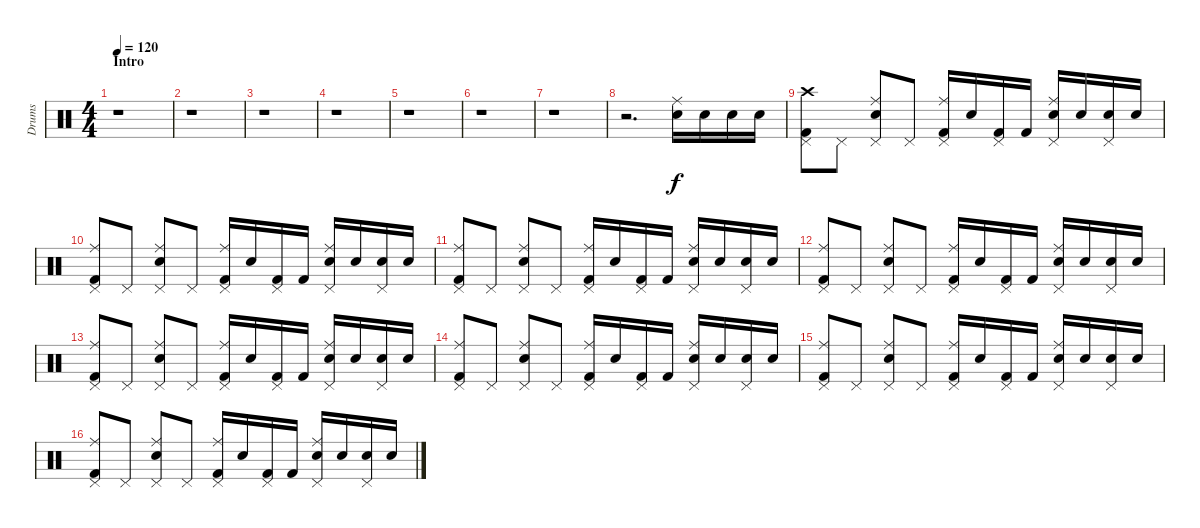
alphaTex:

\track ("Drums" "Drums") {instrument percussion}
\staff {score}
\articulation defaults
\ts (4 4)
\section ("" "Intro")
\tempo 120
\clef neutral
\ks c
r.1{dy f} |
r.1 |
r.1 |
r.1 |
r.1 |
r.1 |
r.1 |
r.2{d} ("Ride (middle)" "Electric Snare (hit)").16 "Electric Snare (hit)".16 "Electric Snare (hit)".16 "Electric Snare (hit)".16 |
("Crash high (hit)" "Kick (hit) 2" "Pedal Hi-Hat (hit)").8 "Pedal Hi-Hat (hit)".8 ("Ride (middle)" "Electric Snare (hit)" "Pedal Hi-Hat (hit)").8 "Pedal Hi-Hat (hit)".8 ("Ride (middle)" "Kick (hit) 2" "Pedal Hi-Hat (hit)").16 "Electric Snare (hit)".16 ("Kick (hit) 2" "Pedal Hi-Hat (hit)").16 "Kick (hit) 2".16 ("Ride (middle)" "Electric Snare (hit)" "Pedal Hi-Hat (hit)").16 "Electric Snare (hit)".16 ("Electric Snare (hit)" "Pedal Hi-Hat (hit)").16 "Electric Snare (hit)".16 |
("Ride (middle)" "Kick (hit) 2" "Pedal Hi-Hat (hit)").8 "Pedal Hi-Hat (hit)".8 ("Ride (middle)" "Electric Snare (hit)" "Pedal Hi-Hat (hit)").8 "Pedal Hi-Hat (hit)".8 ("Ride (middle)" "Kick (hit) 2" "Pedal Hi-Hat (hit)").16 "Electric Snare (hit)".16 ("Kick (hit) 2" "Pedal Hi-Hat (hit)").16 "Kick (hit) 2".16 ("Ride (middle)" "Electric Snare (hit)" "Pedal Hi-Hat (hit)").16 "Electric Snare (hit)".16 ("Electric Snare (hit)" "Pedal Hi-Hat (hit)").16 "Electric Snare (hit)".16 |
("Ride (middle)" "Kick (hit) 2" "Pedal Hi-Hat (hit)").8 "Pedal Hi-Hat (hit)".8 ("Ride (middle)" "Electric Snare (hit)" "Pedal Hi-Hat (hit)").8 "Pedal Hi-Hat (hit)".8 ("Ride (middle)" "Kick (hit) 2" "Pedal Hi-Hat (hit)").16 "Electric Snare (hit)".16 ("Kick (hit) 2" "Pedal Hi-Hat (hit)").16 "Kick (hit) 2".16 ("Ride (middle)" "Electric Snare (hit)" "Pedal Hi-Hat (hit)").16 "Electric Snare (hit)".16 ("Electric Snare (hit)" "Pedal Hi-Hat (hit)").16 "Electric Snare (hit)".16 |
("Ride (middle)" "Kick (hit) 2" "Pedal Hi-Hat (hit)").8 "Pedal Hi-Hat (hit)".8 ("Ride (middle)" "Electric Snare (hit)" "Pedal Hi-Hat (hit)").8 "Pedal Hi-Hat (hit)".8 ("Ride (middle)" "Kick (hit) 2" "Pedal Hi-Hat (hit)").16 "Electric Snare (hit)".16 ("Kick (hit) 2" "Pedal Hi-Hat (hit)").16 "Kick (hit) 2".16 ("Ride (middle)" "Electric Snare (hit)" "Pedal Hi-Hat (hit)").16 "Electric Snare (hit)".16 ("Electric Snare (hit)" "Pedal Hi-Hat (hit)").16 "Electric Snare (hit)".16 |
("Ride (middle)" "Kick (hit) 2" "Pedal Hi-Hat (hit)").8 "Pedal Hi-Hat (hit)".8 ("Ride (middle)" "Electric Snare (hit)" "Pedal Hi-Hat (hit)").8 "Pedal Hi-Hat (hit)".8 ("Ride (middle)" "Kick (hit) 2" "Pedal Hi-Hat (hit)").16 "Electric Snare (hit)".16 ("Kick (hit) 2" "Pedal Hi-Hat (hit)").16 "Kick (hit) 2".16 ("Ride (middle)" "Electric Snare (hit)" "Pedal Hi-Hat (hit)").16 "Electric Snare (hit)".16 ("Electric Snare (hit)" "Pedal Hi-Hat (hit)").16 "Electric Snare (hit)".16 |
("Ride (middle)" "Kick (hit) 2" "Pedal Hi-Hat (hit)").8 "Pedal Hi-Hat (hit)".8 ("Ride (middle)" "Electric Snare (hit)" "Pedal Hi-Hat (hit)").8 "Pedal Hi-Hat (hit)".8 ("Ride (middle)" "Kick (hit) 2" "Pedal Hi-Hat (hit)").16 "Electric Snare (hit)".16 ("Kick (hit) 2" "Pedal Hi-Hat (hit)").16 "Kick (hit) 2".16 ("Ride (middle)" "Electric Snare (hit)" "Pedal Hi-Hat (hit)").16 "Electric Snare (hit)".16 ("Electric Snare (hit)" "Pedal Hi-Hat (hit)").16 "Electric Snare (hit)".16 |
("Ride (middle)" "Kick (hit) 2" "Pedal Hi-Hat (hit)").8 "Pedal Hi-Hat (hit)".8 ("Ride (middle)" "Electric Snare (hit)" "Pedal Hi-Hat (hit)").8 "Pedal Hi-Hat (hit)".8 ("Ride (middle)" "Kick (hit) 2" "Pedal Hi-Hat (hit)").16 "Electric Snare (hit)".16 ("Kick (hit) 2" "Pedal Hi-Hat (hit)").16 "Kick (hit) 2".16 ("Ride (middle)" "Electric Snare (hit)" "Pedal Hi-Hat (hit)").16 "Electric Snare (hit)".16 ("Electric Snare (hit)" "Pedal Hi-Hat (hit)").16 "Electric Snare (hit)".16 |
("Ride (middle)" "Kick (hit) 2" "Pedal Hi-Hat (hit)").8 "Pedal Hi-Hat (hit)".8 ("Ride (middle)" "Electric Snare (hit)" "Pedal Hi-Hat (hit)").8 "Pedal Hi-Hat (hit)".8 ("Ride (middle)" "Kick (hit) 2" "Pedal Hi-Hat (hit)").16 "Electric Snare (hit)".16 ("Kick (hit) 2" "Pedal Hi-Hat (hit)").16 "Kick (hit) 2".16 ("Ride (middle)" "Electric Snare (hit)" "Pedal Hi-Hat (hit)").16 "Electric Snare (hit)".16 ("Electric Snare (hit)" "Pedal Hi-Hat (hit)").16 "Electric Snare (hit)".16
